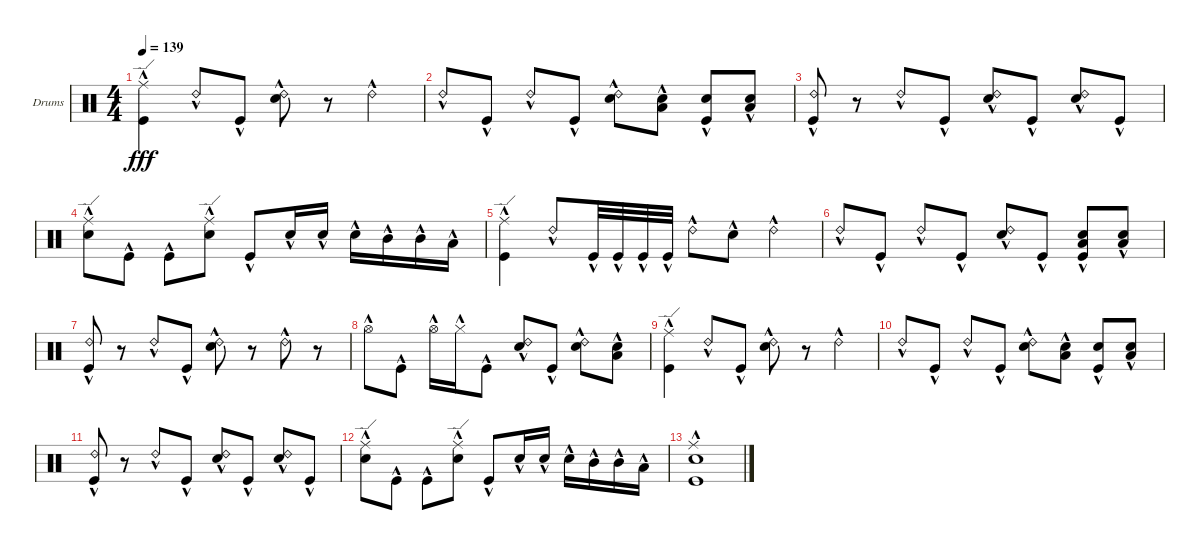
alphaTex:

\bracketExtendMode groupsimilarinstruments
\firstSystemTrackNameOrientation horizontal
\otherSystemsTrackNameOrientation horizontal
\track ("Drumkit" "Drums") {instrument percussion}
\staff {score}
\articulation defaults
\ts (4 4)
\tempo 139
\clef neutral
\ks c
("Ride (edge)"{hac} "Kick (hit)"{hac}).4{dy fff} "Ride (bell) 2"{hac}.8 "Kick (hit)"{hac}.8 ("Ride (bell) 2"{hac} "Snare (hit) 2"{hac}).8 r.8 "Ride (bell) 2"{hac}.4 |
"Ride (bell) 2"{hac}.8 "Kick (hit)"{hac}.8 "Ride (bell) 2"{hac}.8 "Kick (hit)"{hac}.8 ("Ride (bell) 2"{hac} "Snare (hit) 2"{hac}).8 ("Low Tom (hit)"{hac} "Snare (hit) 2"{hac}).8 ("Snare (hit) 2"{hac} "Kick (hit)"{hac}).8 ("Snare (hit) 2"{hac} "Low Tom (hit)"{hac}).8 |
("Ride (bell) 2"{hac} "Kick (hit)"{hac}).8 r.8 "Ride (bell) 2"{hac}.8 "Kick (hit)"{hac}.8 ("Ride (bell) 2"{hac} "Snare (hit) 2"{hac}).8 "Kick (hit)"{hac}.8 ("Ride (bell) 2"{hac} "Snare (hit) 2"{hac}).8 "Kick (hit)"{hac}.8 |
("Snare (hit) 2"{hac} "Ride (edge)"{hac}).8 "Kick (hit)"{hac}.8 "Kick (hit)"{hac}.8 ("Snare (hit) 2"{hac} "Ride (edge)"{hac}).8 "Kick (hit)"{hac}.8 "Snare (hit) 2"{hac}.16 "Snare (hit) 2"{hac}.16 "Snare (hit) 2"{hac}.16 "Mid Tom (hit)"{hac}.16 "Mid Tom (hit)"{hac}.16 "Low Tom (hit)"{hac}.16 |
("Ride (edge)"{hac} "Kick (hit)"{hac}).4 "Ride (bell) 2"{hac}.8 "Kick (hit)"{hac}.32 "Kick (hit)"{hac}.32 "Kick (hit)"{hac}.32 "Kick (hit)"{hac}.32 "Ride (bell) 2"{hac}.8 "Snare (hit) 2"{hac}.8 "Ride (bell) 2"{hac}.4 |
"Ride (bell) 2"{hac}.8 "Kick (hit)"{hac}.8 "Ride (bell) 2"{hac}.8 "Kick (hit)"{hac}.8 ("Ride (bell) 2"{hac} "Snare (hit) 2"{hac}).8 "Kick (hit)"{hac}.8 ("Snare (hit) 2"{hac} "Kick (hit)"{hac} "Low Tom (hit)"{hac}).8 ("Snare (hit) 2"{hac} "Low Tom (hit)"{hac}).8 |
("Ride (bell) 2"{hac} "Kick (hit)"{hac}).8 r.8 "Ride (bell) 2"{hac}.8 "Kick (hit)"{hac}.8 ("Ride (bell) 2"{hac} "Snare (hit) 2"{hac}).8 r.8 "Ride (bell) 2"{hac}.8 r.8 |
"Hi-Hat (open)"{hac}.8 "Kick (hit)"{hac}.8 "Hi-Hat (open)"{hac}.16 "Hi-Hat (closed)"{hac}.16 "Kick (hit)"{hac}.8 ("Snare (hit) 2"{hac} "Ride (bell) 2"{hac}).8 "Kick (hit)"{hac}.8 ("Snare (hit) 2"{hac} "Ride (bell) 2"{hac}).8 ("Snare (hit) 2"{hac} "Low Tom (hit)"{hac}).8 |
("Ride (edge)"{hac} "Kick (hit)"{hac}).4 "Ride (bell) 2"{hac}.8 "Kick (hit)"{hac}.8 ("Ride (bell) 2"{hac} "Snare (hit) 2"{hac}).8 r.8 "Ride (bell) 2"{hac}.4 |
"Ride (bell) 2"{hac}.8 "Kick (hit)"{hac}.8 "Ride (bell) 2"{hac}.8 "Kick (hit)"{hac}.8 ("Ride (bell) 2"{hac} "Snare (hit) 2"{hac}).8 ("Low Tom (hit)"{hac} "Snare (hit) 2"{hac}).8 ("Snare (hit) 2"{hac} "Kick (hit)"{hac}).8 ("Snare (hit) 2"{hac} "Low Tom (hit)"{hac}).8 |
("Ride (bell) 2"{hac} "Kick (hit)"{hac}).8 r.8 "Ride (bell) 2"{hac}.8 "Kick (hit)"{hac}.8 ("Ride (bell) 2"{hac} "Snare (hit) 2"{hac}).8 "Kick (hit)"{hac}.8 ("Ride (bell) 2"{hac} "Snare (hit) 2"{hac}).8 "Kick (hit)"{hac}.8 |
("Snare (hit) 2"{hac} "Ride (edge)"{hac}).8 "Kick (hit)"{hac}.8 "Kick (hit)"{hac}.8 ("Snare (hit) 2"{hac} "Ride (edge)"{hac}).8 "Kick (hit)"{hac}.8 "Snare (hit) 2"{hac}.16 "Snare (hit) 2"{hac}.16 "Snare (hit) 2"{hac}.16 "Mid Tom (hit)"{hac}.16 "Mid Tom (hit)"{hac}.16 "Low Tom (hit)"{hac}.16 |
("Kick (hit)"{hac} "Snare (hit) 2"{hac} "Ride (middle)"{hac}).1
